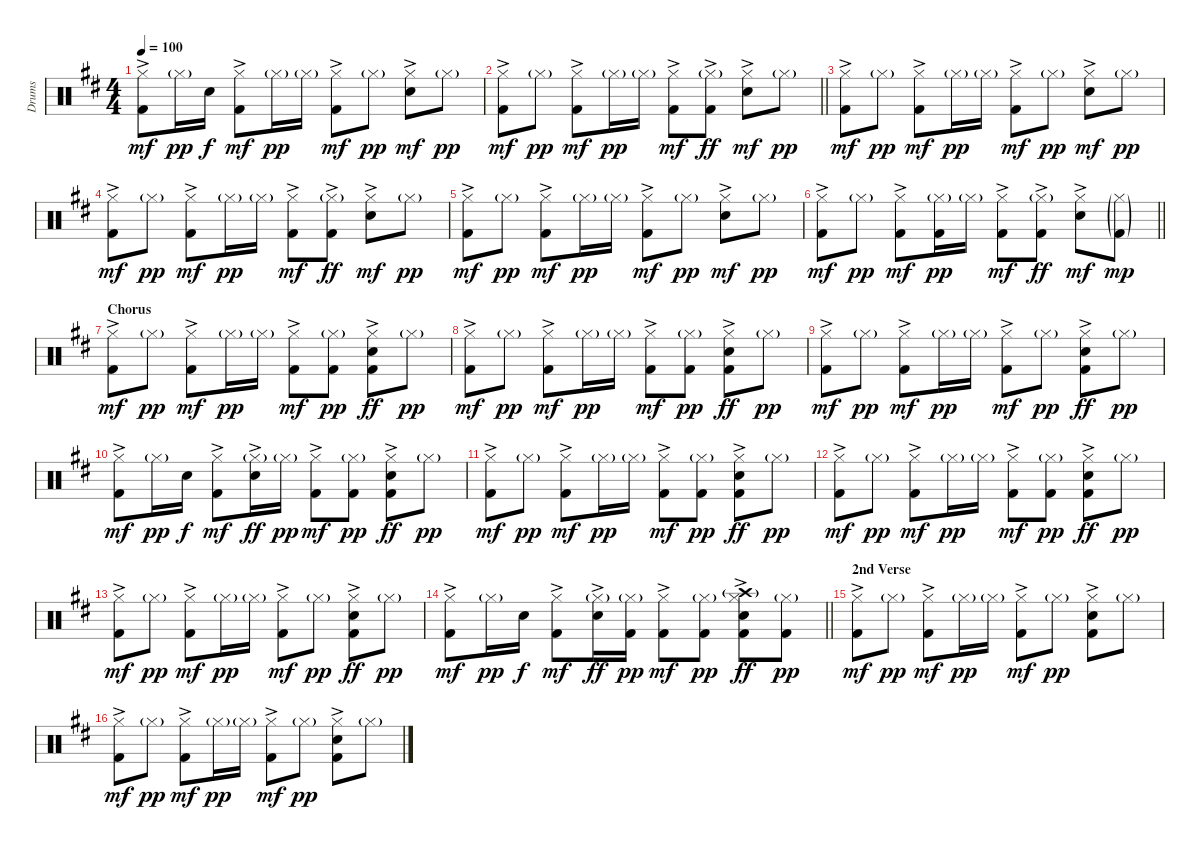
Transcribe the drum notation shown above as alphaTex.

\track ("Drums" "Drums") {instrument percussion}
\staff {score}
\articulation defaults
\ts (4 4)
\tempo 100
\clef neutral
\ks d
("Hi-Hat (closed)" "Kick (hit) 2"{ac}).8{dy mf} "Hi-Hat (closed)"{g}.16{dy pp} "Snare (hit) 2".16{dy f} ("Hi-Hat (closed)"{ac} "Kick (hit) 2"{ac}).8{dy mf} "Hi-Hat (closed)"{g}.16{dy pp} "Hi-Hat (closed)"{g}.16 ("Hi-Hat (closed)" "Kick (hit) 2"{ac}).8{dy mf} "Hi-Hat (closed)"{g}.8{dy pp} ("Hi-Hat (closed)"{ac} "Snare (hit) 2"{ac}).8{dy mf} "Hi-Hat (closed)"{g}.8{dy pp} |
\barLineRight lightlight
("Hi-Hat (closed)" "Kick (hit) 2"{ac}).8{dy mf} "Hi-Hat (closed)"{g}.8{dy pp} ("Hi-Hat (closed)"{ac} "Kick (hit) 2"{ac}).8{dy mf} "Hi-Hat (closed)"{g}.16{dy pp} "Hi-Hat (closed)"{g}.16 ("Hi-Hat (closed)" "Kick (hit) 2"{ac}).8{dy mf} ("Hi-Hat (closed)"{g} "Kick (hit) 2"{ac}).8{dy ff} ("Hi-Hat (closed)"{ac} "Snare (hit) 2"{ac}).8{dy mf} "Hi-Hat (closed)"{g}.8{dy pp} |
("Hi-Hat (closed)" "Kick (hit) 2"{ac}).8{dy mf} "Hi-Hat (closed)"{g}.8{dy pp} ("Hi-Hat (closed)"{ac} "Kick (hit) 2"{ac}).8{dy mf} "Hi-Hat (closed)"{g}.16{dy pp} "Hi-Hat (closed)"{g}.16 ("Hi-Hat (closed)" "Kick (hit) 2"{ac}).8{dy mf} "Hi-Hat (closed)"{g}.8{dy pp} ("Hi-Hat (closed)"{ac} "Snare (hit) 2"{ac}).8{dy mf} "Hi-Hat (closed)"{g}.8{dy pp} |
("Hi-Hat (closed)" "Kick (hit) 2"{ac}).8{dy mf} "Hi-Hat (closed)"{g}.8{dy pp} ("Hi-Hat (closed)"{ac} "Kick (hit) 2"{ac}).8{dy mf} "Hi-Hat (closed)"{g}.16{dy pp} "Hi-Hat (closed)"{g}.16 ("Hi-Hat (closed)" "Kick (hit) 2"{ac}).8{dy mf} ("Hi-Hat (closed)"{g} "Kick (hit) 2"{ac}).8{dy ff} ("Hi-Hat (closed)"{ac} "Snare (hit) 2"{ac}).8{dy mf} "Hi-Hat (closed)"{g}.8{dy pp} |
("Hi-Hat (closed)" "Kick (hit) 2"{ac}).8{dy mf} "Hi-Hat (closed)"{g}.8{dy pp} ("Hi-Hat (closed)"{ac} "Kick (hit) 2"{ac}).8{dy mf} "Hi-Hat (closed)"{g}.16{dy pp} "Hi-Hat (closed)"{g}.16 ("Hi-Hat (closed)" "Kick (hit) 2"{ac}).8{dy mf} "Hi-Hat (closed)"{g}.8{dy pp} ("Hi-Hat (closed)"{ac} "Snare (hit) 2"{ac}).8{dy mf} "Hi-Hat (closed)"{g}.8{dy pp} |
\barLineRight lightlight
("Hi-Hat (closed)" "Kick (hit) 2"{ac}).8{dy mf} "Hi-Hat (closed)"{g}.8{dy pp} ("Hi-Hat (closed)"{ac} "Kick (hit) 2"{ac}).8{dy mf} ("Hi-Hat (closed)"{g} "Kick (hit) 2").16{dy pp} "Hi-Hat (closed)"{g}.16 ("Hi-Hat (closed)" "Kick (hit) 2"{ac}).8{dy mf} ("Hi-Hat (closed)"{g} "Kick (hit) 2"{ac}).8{dy ff} ("Hi-Hat (closed)"{ac} "Snare (hit) 2"{ac}).8{dy mf} ("Hi-Hat (closed)"{g} "Kick (hit) 2"{g}).8{dy mp} |
\section ("" "Chorus")
("Hi-Hat (closed)" "Kick (hit) 2"{ac}).8{dy mf} "Hi-Hat (closed)"{g}.8{dy pp} ("Hi-Hat (closed)"{ac} "Kick (hit) 2"{ac}).8{dy mf} "Hi-Hat (closed)"{g}.16{dy pp} "Hi-Hat (closed)"{g}.16 ("Hi-Hat (closed)" "Kick (hit) 2"{ac}).8{dy mf} ("Hi-Hat (closed)"{g} "Kick (hit) 2").8{dy pp} ("Hi-Hat (closed)"{ac} "Snare (hit) 2"{ac} "Kick (hit) 2"{ac}).8{dy ff} "Hi-Hat (closed)"{g}.8{dy pp} |
("Hi-Hat (closed)" "Kick (hit) 2"{ac}).8{dy mf} "Hi-Hat (closed)"{g}.8{dy pp} ("Hi-Hat (closed)"{ac} "Kick (hit) 2"{ac}).8{dy mf} "Hi-Hat (closed)"{g}.16{dy pp} "Hi-Hat (closed)"{g}.16 ("Hi-Hat (closed)" "Kick (hit) 2"{ac}).8{dy mf} ("Hi-Hat (closed)"{g} "Kick (hit) 2").8{dy pp} ("Hi-Hat (closed)"{ac} "Snare (hit) 2"{ac} "Kick (hit) 2"{ac}).8{dy ff} "Hi-Hat (closed)"{g}.8{dy pp} |
("Hi-Hat (closed)" "Kick (hit) 2"{ac}).8{dy mf} "Hi-Hat (closed)"{g}.8{dy pp} ("Hi-Hat (closed)"{ac} "Kick (hit) 2"{ac}).8{dy mf} "Hi-Hat (closed)"{g}.16{dy pp} "Hi-Hat (closed)"{g}.16 ("Hi-Hat (closed)" "Kick (hit) 2"{ac}).8{dy mf} "Hi-Hat (closed)"{g}.8{dy pp} ("Hi-Hat (closed)"{ac} "Snare (hit) 2"{ac} "Kick (hit) 2"{ac}).8{dy ff} "Hi-Hat (closed)"{g}.8{dy pp} |
("Hi-Hat (closed)" "Kick (hit) 2"{ac}).8{dy mf} "Hi-Hat (closed)"{g}.16{dy pp} "Snare (hit) 2".16{dy f} ("Hi-Hat (closed)"{ac} "Kick (hit) 2"{ac}).8{dy mf} ("Hi-Hat (closed)"{g} "Snare (hit) 2"{ac}).16{dy ff} "Hi-Hat (closed)"{g}.16{dy pp} ("Hi-Hat (closed)" "Kick (hit) 2"{ac}).8{dy mf} ("Hi-Hat (closed)"{g} "Kick (hit) 2").8{dy pp} ("Hi-Hat (closed)"{ac} "Snare (hit) 2"{ac} "Kick (hit) 2"{ac}).8{dy ff} "Hi-Hat (closed)"{g}.8{dy pp} |
("Hi-Hat (closed)" "Kick (hit) 2"{ac}).8{dy mf} "Hi-Hat (closed)"{g}.8{dy pp} ("Hi-Hat (closed)"{ac} "Kick (hit) 2"{ac}).8{dy mf} "Hi-Hat (closed)"{g}.16{dy pp} "Hi-Hat (closed)"{g}.16 ("Hi-Hat (closed)" "Kick (hit) 2"{ac}).8{dy mf} ("Hi-Hat (closed)"{g} "Kick (hit) 2").8{dy pp} ("Hi-Hat (closed)"{ac} "Snare (hit) 2"{ac} "Kick (hit) 2"{ac}).8{dy ff} "Hi-Hat (closed)"{g}.8{dy pp} |
("Hi-Hat (closed)" "Kick (hit) 2"{ac}).8{dy mf} "Hi-Hat (closed)"{g}.8{dy pp} ("Hi-Hat (closed)"{ac} "Kick (hit) 2"{ac}).8{dy mf} "Hi-Hat (closed)"{g}.16{dy pp} "Hi-Hat (closed)"{g}.16 ("Hi-Hat (closed)" "Kick (hit) 2"{ac}).8{dy mf} ("Hi-Hat (closed)"{g} "Kick (hit) 2").8{dy pp} ("Hi-Hat (closed)"{ac} "Snare (hit) 2"{ac} "Kick (hit) 2"{ac}).8{dy ff} "Hi-Hat (closed)"{g}.8{dy pp} |
("Hi-Hat (closed)" "Kick (hit) 2"{ac}).8{dy mf} "Hi-Hat (closed)"{g}.8{dy pp} ("Hi-Hat (closed)"{ac} "Kick (hit) 2"{ac}).8{dy mf} "Hi-Hat (closed)"{g}.16{dy pp} "Hi-Hat (closed)"{g}.16 ("Hi-Hat (closed)" "Kick (hit) 2"{ac}).8{dy mf} "Hi-Hat (closed)"{g}.8{dy pp} ("Hi-Hat (closed)"{ac} "Snare (hit) 2"{ac} "Kick (hit) 2"{ac}).8{dy ff} "Hi-Hat (closed)"{g}.8{dy pp} |
\barLineRight lightlight
("Hi-Hat (closed)" "Kick (hit) 2"{ac}).8{dy mf} "Hi-Hat (closed)"{g}.16{dy pp} "Snare (hit) 2".16{dy f} ("Hi-Hat (closed)"{ac} "Kick (hit) 2"{ac}).8{dy mf} ("Hi-Hat (closed)"{g} "Snare (hit) 2"{ac}).16{dy ff} ("Hi-Hat (closed)"{g} "Kick (hit) 2").16{dy pp} ("Hi-Hat (closed)" "Kick (hit) 2"{ac}).8{dy mf} ("Hi-Hat (closed)"{g} "Kick (hit) 2").8{dy pp} ("Hi-Hat (closed)"{ac} "Crash high (hit)"{g} "Snare (hit) 2"{ac} "Kick (hit) 2"{ac}).8{dy ff} ("Hi-Hat (closed)"{g} "Kick (hit) 2").8{dy pp} |
\section ("" "2nd Verse")
("Hi-Hat (closed)" "Kick (hit) 2"{ac}).8{dy mf} "Hi-Hat (closed)"{g}.8{dy pp} ("Hi-Hat (closed)"{ac} "Kick (hit) 2"{ac}).8{dy mf} "Hi-Hat (closed)"{g}.16{dy pp} "Hi-Hat (closed)"{g}.16 ("Hi-Hat (closed)" "Kick (hit) 2"{ac}).8{dy mf} "Hi-Hat (closed)"{g}.8{dy pp} ("Hi-Hat (closed)"{ac} "Snare (hit) 2"{ac} "Kick (hit) 2").8 "Hi-Hat (closed)"{g}.8 |
("Hi-Hat (closed)" "Kick (hit) 2"{ac}).8{dy mf} "Hi-Hat (closed)"{g}.8{dy pp} ("Hi-Hat (closed)"{ac} "Kick (hit) 2"{ac}).8{dy mf} "Hi-Hat (closed)"{g}.16{dy pp} "Hi-Hat (closed)"{g}.16 ("Hi-Hat (closed)" "Kick (hit) 2"{ac}).8{dy mf} "Hi-Hat (closed)"{g}.8{dy pp} ("Hi-Hat (closed)"{ac} "Snare (hit) 2"{ac} "Kick (hit) 2").8 "Hi-Hat (closed)"{g}.8
